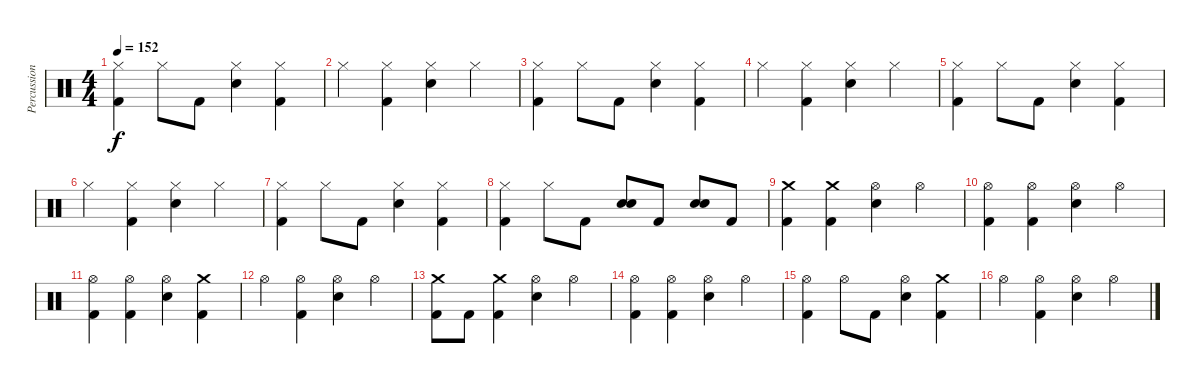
\track ("Percussion" "Percussion") {instrument percussion}
\staff {score}
\articulation defaults
\ts (4 4)
\tempo 152
\clef neutral
\ks c
("Hi-Hat (closed)" "Kick (hit) 2").4{dy f} "Hi-Hat (closed)".8 "Kick (hit) 2".8 ("Hi-Hat (closed)" "Electric Snare (hit)").4 ("Hi-Hat (closed)" "Kick (hit) 2").4 |
"Hi-Hat (closed)".4 ("Hi-Hat (closed)" "Kick (hit) 2").4 ("Hi-Hat (closed)" "Electric Snare (hit)").4 "Hi-Hat (closed)".4 |
("Hi-Hat (closed)" "Kick (hit) 2").4 "Hi-Hat (closed)".8 "Kick (hit) 2".8 ("Hi-Hat (closed)" "Electric Snare (hit)").4 ("Hi-Hat (closed)" "Kick (hit) 2").4 |
"Hi-Hat (closed)".4 ("Hi-Hat (closed)" "Kick (hit) 2").4 ("Hi-Hat (closed)" "Electric Snare (hit)").4 "Hi-Hat (closed)".4 |
("Hi-Hat (closed)" "Kick (hit) 2").4 "Hi-Hat (closed)".8 "Kick (hit) 2".8 ("Hi-Hat (closed)" "Electric Snare (hit)").4 ("Hi-Hat (closed)" "Kick (hit) 2").4 |
"Hi-Hat (closed)".4 ("Hi-Hat (closed)" "Kick (hit) 2").4 ("Hi-Hat (closed)" "Electric Snare (hit)").4 "Hi-Hat (closed)".4 |
("Hi-Hat (closed)" "Kick (hit) 2").4 "Hi-Hat (closed)".8 "Kick (hit) 2".8 ("Hi-Hat (closed)" "Electric Snare (hit)").4 ("Hi-Hat (closed)" "Kick (hit) 2").4 |
("Hi-Hat (closed)" "Kick (hit) 2").4 "Hi-Hat (closed)".8 "Kick (hit) 2".8 ("Electric Snare (hit)" "Electric Snare (hit)").8 "Kick (hit) 2".8 ("Electric Snare (hit)" "Electric Snare (hit)").8 "Kick (hit) 2".8 |
("Crash medium (hit)" "Kick (hit) 2").4 ("Crash medium (hit)" "Kick (hit) 2").4 ("Hi-Hat (open)" "Electric Snare (hit)").4 "Hi-Hat (open)".4 |
("Hi-Hat (open)" "Kick (hit) 2").4 ("Hi-Hat (open)" "Kick (hit) 2").4 ("Hi-Hat (open)" "Electric Snare (hit)").4 "Hi-Hat (open)".4 |
("Hi-Hat (open)" "Kick (hit) 2").4 ("Hi-Hat (open)" "Kick (hit) 2").4 ("Hi-Hat (open)" "Electric Snare (hit)").4 ("Crash medium (hit)" "Kick (hit) 2").4 |
"Hi-Hat (open)".4 ("Hi-Hat (open)" "Kick (hit) 2").4 ("Hi-Hat (open)" "Electric Snare (hit)").4 "Hi-Hat (open)".4 |
("Crash medium (hit)" "Kick (hit) 2").8 "Kick (hit) 2".8 ("Crash medium (hit)" "Kick (hit) 2").4 ("Hi-Hat (open)" "Electric Snare (hit)").4 "Hi-Hat (open)".4 |
("Hi-Hat (open)" "Kick (hit) 2").4 ("Hi-Hat (open)" "Kick (hit) 2").4 ("Hi-Hat (open)" "Electric Snare (hit)").4 "Hi-Hat (open)".4 |
("Hi-Hat (open)" "Kick (hit) 2").4 "Hi-Hat (open)".8 "Kick (hit) 2".8 ("Hi-Hat (open)" "Electric Snare (hit)").4 ("Crash medium (hit)" "Kick (hit) 2").4 |
"Hi-Hat (open)".4 ("Hi-Hat (open)" "Kick (hit) 2").4 ("Hi-Hat (open)" "Electric Snare (hit)").4 "Hi-Hat (open)".4
